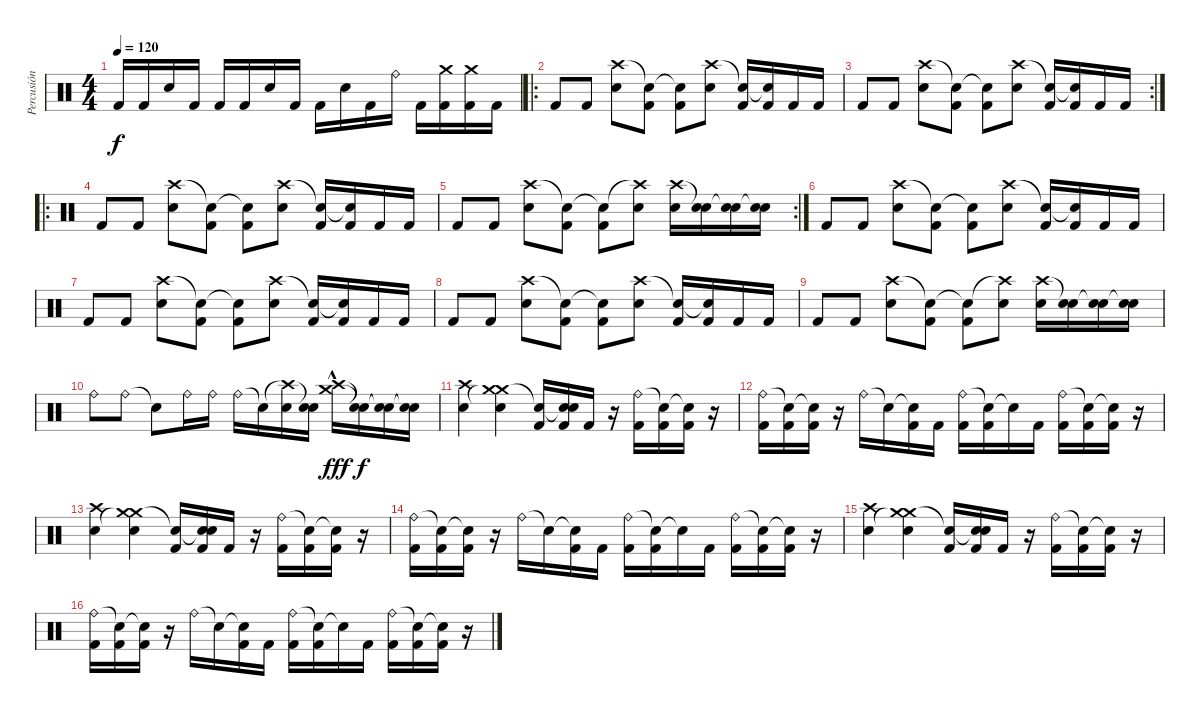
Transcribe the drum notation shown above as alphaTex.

\track ("Percusión" "Percusión") {instrument percussion}
\staff {score}
\articulation defaults
\ts (4 4)
\tempo 120
\clef neutral
\ks c "Kick (hit) 2".16{dy f} "Kick (hit) 2".16 "Electric Snare (hit)".16 "Kick (hit) 2".16 "Kick (hit) 2".16 "Kick (hit) 2".16 "Electric Snare (hit)".16 "Kick (hit) 2".16 "Kick (hit) 2".16 "Electric Snare (hit)".16 "Kick (hit) 2".16 "Ride (bell)".16 "Kick (hit) 2".16
("Crash medium (hit)" "Kick (hit) 2").16 ("Crash medium (hit)" "Kick (hit) 2").16 "Kick (hit) 2".16 |
\ro "Kick (hit) 2".8 "Kick (hit) 2".8
("Crash high (hit)" "Electric Snare (hit)").8 ("Snare (hit)"{t} "Kick (hit) 2").8 ("Snare (hit)"{t} "Kick (hit) 2").8 ("Crash high (hit)" "Electric Snare (hit)").8 ("Snare (hit)"{t} "Kick (hit) 2").16 ("Snare (hit)"{t} "Kick (hit) 2").16 "Kick (hit) 2".16 "Kick (hit) 2".16 |
\rc 2 "Kick (hit) 2".8 "Kick (hit) 2".8
("Crash high (hit)" "Electric Snare (hit)").8 ("Snare (hit)"{t} "Kick (hit) 2").8 ("Snare (hit)"{t} "Kick (hit) 2").8 ("Crash high (hit)" "Electric Snare (hit)").8 ("Snare (hit)"{t} "Kick (hit) 2").16 ("Snare (hit)"{t} "Kick (hit) 2").16 "Kick (hit) 2".16 "Kick (hit) 2".16 |
\ro "Kick (hit) 2".8 "Kick (hit) 2".8
("Crash high (hit)" "Electric Snare (hit)").8 ("Snare (hit)"{t} "Kick (hit) 2").8 ("Snare (hit)"{t} "Kick (hit) 2").8 ("Crash high (hit)" "Electric Snare (hit)").8 ("Snare (hit)"{t} "Kick (hit) 2").16 ("Snare (hit)"{t} "Kick (hit) 2").16 "Kick (hit) 2".16 "Kick (hit) 2".16 |
\rc 2 "Kick (hit) 2".8 "Kick (hit) 2".8
("Crash high (hit)" "Electric Snare (hit)").8 ("Snare (hit)"{t} "Kick (hit) 2").8 ("Snare (hit)"{t} "Kick (hit) 2").8 ("Crash high (hit)"{t} "Electric Snare (hit)").8 ("Crash high (hit)" "Electric Snare (hit)").16 ("Snare (hit)"{t} "Electric Snare (hit)").16 ("Snare (hit)"{t} "Electric Snare (hit)").16 ("Snare (hit)"{t} "Electric Snare (hit)").16 |
"Kick (hit) 2".8 "Kick (hit) 2".8 ("Crash high (hit)" "Electric Snare (hit)").8 ("Snare (hit)"{t} "Kick (hit) 2").8 ("Snare (hit)"{t} "Kick (hit) 2").8 ("Crash high (hit)" "Electric Snare (hit)").8 ("Snare (hit)"{t} "Kick (hit) 2").16 ("Snare (hit)"{t} "Kick (hit) 2").16 "Kick (hit) 2".16 "Kick (hit) 2".16 |
"Kick (hit) 2".8 "Kick (hit) 2".8 ("Crash high (hit)" "Electric Snare (hit)").8 ("Snare (hit)"{t} "Kick (hit) 2").8 ("Snare (hit)"{t} "Kick (hit) 2").8 ("Crash high (hit)" "Electric Snare (hit)").8 ("Snare (hit)"{t} "Kick (hit) 2").16 ("Snare (hit)"{t} "Kick (hit) 2").16 "Kick (hit) 2".16 "Kick (hit) 2".16 |
"Kick (hit) 2".8 "Kick (hit) 2".8 ("Crash high (hit)" "Electric Snare (hit)").8 ("Snare (hit)"{t} "Kick (hit) 2").8 ("Snare (hit)"{t} "Kick (hit) 2").8 ("Crash high (hit)" "Electric Snare (hit)").8 ("Snare (hit)"{t} "Kick (hit) 2").16 ("Snare (hit)"{t} "Kick (hit) 2").16 "Kick (hit) 2".16 "Kick (hit) 2".16 |
"Kick (hit) 2".8 "Kick (hit) 2".8 ("Crash high (hit)" "Electric Snare (hit)").8 ("Snare (hit)"{t} "Kick (hit) 2").8 ("Snare (hit)"{t} "Kick (hit) 2").8 ("Crash high (hit)"{t} "Electric Snare (hit)").8 ("Crash high (hit)" "Electric Snare (hit)").16 ("Snare (hit)"{t} "Electric Snare (hit)").16 ("Snare (hit)"{t} "Electric Snare (hit)").16 ("Snare (hit)"{t} "Electric Snare (hit)").16 |
"Ride (bell)".8 "Ride (bell)".8 "Snare (hit)"{t}.8 "Ride (bell)".16 "Ride (bell)".16 "Ride (bell)".16 "Snare (hit)"{t}.16 ("Crash high (hit)"{t} "Electric Snare (hit)").16 ("Snare (hit)"{t} "Electric Snare (hit)").16 ("Crash medium (hit)"{hac} "Crash high (hit)"{hac}).16{dy fff} ("Snare (hit)"{t} "Snare (hit)"{t}).16{dy f} ("Snare (hit)"{t} "Snare (hit)"{t}).16 ("Snare (hit)"{t} "Snare (hit)"{t}).16 |
("Crash high (hit)" "Electric Snare (hit)").4 ("Crash medium (hit)" "Crash medium (hit)"{t} "Electric Snare (hit)").4 ("Snare (hit)"{t} "Kick (hit) 2").16 ("Snare (hit)"{t} "Electric Snare (hit)" "Kick (hit) 2").16 "Kick (hit) 2".16 r.16 ("Ride (bell)" "Kick (hit) 2").16 ("Snare (hit)"{t} "Kick (hit) 2").16 ("Snare (hit)"{t} "Kick (hit) 2").16 r.16 |
("Ride (bell)" "Kick (hit) 2").16 ("Snare (hit)"{t} "Kick (hit) 2").16 ("Snare (hit)"{t} "Kick (hit) 2").16 r.16 "Ride (bell)".16 "Snare (hit)"{t}.16 ("Snare (hit)"{t} "Kick (hit) 2").16 "Kick (hit) 2".16 ("Ride (bell)" "Kick (hit) 2").16 ("Snare (hit)"{t} "Kick (hit) 2").16 "Snare (hit)"{t}.16 "Kick (hit) 2".16 ("Ride (bell)" "Kick (hit) 2").16 ("Snare (hit)"{t} "Kick (hit) 2").16 ("Snare (hit)"{t} "Kick (hit) 2").16 r.16 |
("Crash high (hit)" "Electric Snare (hit)").4 ("Crash medium (hit)" "Crash medium (hit)"{t} "Electric Snare (hit)").4 ("Snare (hit)"{t} "Kick (hit) 2").16 ("Snare (hit)"{t} "Electric Snare (hit)" "Kick (hit) 2").16 "Kick (hit) 2".16 r.16 ("Ride (bell)" "Kick (hit) 2").16 ("Snare (hit)"{t} "Kick (hit) 2").16 ("Snare (hit)"{t} "Kick (hit) 2").16 r.16 |
("Ride (bell)" "Kick (hit) 2").16 ("Snare (hit)"{t} "Kick (hit) 2").16 ("Snare (hit)"{t} "Kick (hit) 2").16 r.16 "Ride (bell)".16 "Snare (hit)"{t}.16 ("Snare (hit)"{t} "Kick (hit) 2").16 "Kick (hit) 2".16 ("Ride (bell)" "Kick (hit) 2").16 ("Snare (hit)"{t} "Kick (hit) 2").16 "Snare (hit)"{t}.16 "Kick (hit) 2".16 ("Ride (bell)" "Kick (hit) 2").16 ("Snare (hit)"{t} "Kick (hit) 2").16 ("Snare (hit)"{t} "Kick (hit) 2").16 r.16 |
("Crash high (hit)" "Electric Snare (hit)").4 ("Crash medium (hit)" "Crash medium (hit)"{t} "Electric Snare (hit)").4 ("Snare (hit)"{t} "Kick (hit) 2").16 ("Snare (hit)"{t} "Electric Snare (hit)" "Kick (hit) 2").16 "Kick (hit) 2".16 r.16 ("Ride (bell)" "Kick (hit) 2").16 ("Snare (hit)"{t} "Kick (hit) 2").16 ("Snare (hit)"{t} "Kick (hit) 2").16 r.16 |
("Ride (bell)" "Kick (hit) 2").16 ("Snare (hit)"{t} "Kick (hit) 2").16 ("Snare (hit)"{t} "Kick (hit) 2").16 r.16 "Ride (bell)".16 "Snare (hit)"{t}.16 ("Snare (hit)"{t} "Kick (hit) 2").16 "Kick (hit) 2".16 ("Ride (bell)" "Kick (hit) 2").16 ("Snare (hit)"{t} "Kick (hit) 2").16 "Snare (hit)"{t}.16 "Kick (hit) 2".16 ("Ride (bell)" "Kick (hit) 2").16 ("Snare (hit)"{t} "Kick (hit) 2").16 ("Snare (hit)"{t} "Kick (hit) 2").16 r.16
